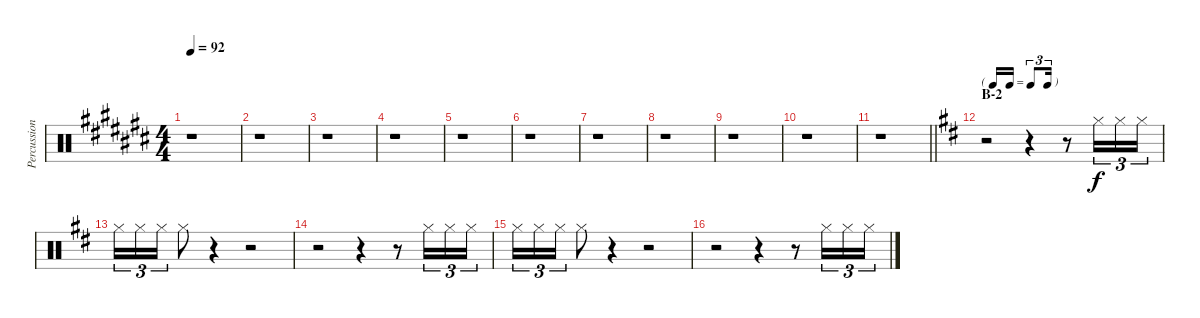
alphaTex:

\track ("Percussion" "Percussion") {instrument percussion}
\staff {score}
\articulation defaults
\ts (4 4)
\tempo 92
\clef neutral
\ks c#
r.1{dy f} |
r.1 |
r.1 |
r.1 |
r.1 |
r.1 |
r.1 |
r.1 |
r.1 |
r.1 |
\barLineRight lightlight
r.1 |
\tf triplet16th
\section ("" "B-2")
\ks d
r.2 r.4 r.8 "Hi-Hat (closed)".16{tu (3 2)} "Hi-Hat (closed)".16{tu (3 2)} "Hi-Hat (closed)".16{tu (3 2)} |
"Hi-Hat (closed)".16{tu (3 2)} "Hi-Hat (closed)".16{tu (3 2)} "Hi-Hat (closed)".16{tu (3 2)} "Hi-Hat (closed)".8 r.4 r.2 |
r.2 r.4 r.8 "Hi-Hat (closed)".16{tu (3 2)} "Hi-Hat (closed)".16{tu (3 2)} "Hi-Hat (closed)".16{tu (3 2)} |
"Hi-Hat (closed)".16{tu (3 2)} "Hi-Hat (closed)".16{tu (3 2)} "Hi-Hat (closed)".16{tu (3 2)} "Hi-Hat (closed)".8 r.4 r.2 |
r.2 r.4 r.8 "Hi-Hat (closed)".16{tu (3 2)} "Hi-Hat (closed)".16{tu (3 2)} "Hi-Hat (closed)".16{tu (3 2)}
